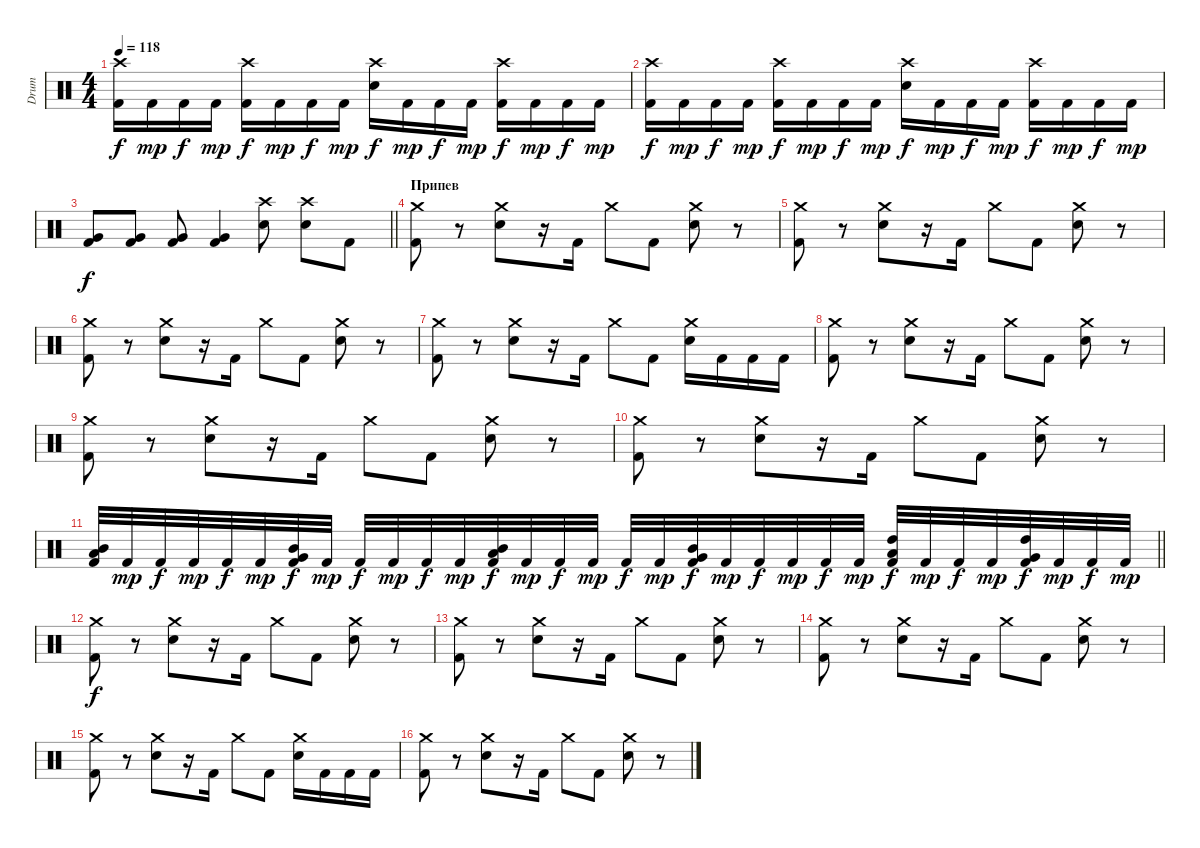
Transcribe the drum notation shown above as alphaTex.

\track ("Drum" "Drum") {instrument percussion}
\staff {score}
\articulation defaults
\ts (4 4)
\tempo 118
\clef neutral
\ks c
("Crash high (hit)" "Kick (hit) 2").16{dy f} "Kick (hit) 2".16{dy mp} "Kick (hit) 2".16{dy f} "Kick (hit) 2".16{dy mp} ("Crash high (hit)" "Kick (hit) 2").16{dy f} "Kick (hit) 2".16{dy mp} "Kick (hit) 2".16{dy f} "Kick (hit) 2".16{dy mp} ("Crash high (hit)" "Snare (hit) 2").16{dy f} "Kick (hit) 2".16{dy mp} "Kick (hit) 2".16{dy f} "Kick (hit) 2".16{dy mp} ("Crash high (hit)" "Kick (hit) 2").16{dy f} "Kick (hit) 2".16{dy mp} "Kick (hit) 2".16{dy f} "Kick (hit) 2".16{dy mp} |
("Crash high (hit)" "Kick (hit) 2").16{dy f} "Kick (hit) 2".16{dy mp} "Kick (hit) 2".16{dy f} "Kick (hit) 2".16{dy mp} ("Crash high (hit)" "Kick (hit) 2").16{dy f} "Kick (hit) 2".16{dy mp} "Kick (hit) 2".16{dy f} "Kick (hit) 2".16{dy mp} ("Crash high (hit)" "Snare (hit) 2").16{dy f} "Kick (hit) 2".16{dy mp} "Kick (hit) 2".16{dy f} "Kick (hit) 2".16{dy mp} ("Crash high (hit)" "Kick (hit) 2").16{dy f} "Kick (hit) 2".16{dy mp} "Kick (hit) 2".16{dy f} "Kick (hit) 2".16{dy mp} |
\barLineRight lightlight
("Very Low Tom (hit)" "Kick (hit) 2").8{dy f} ("Very Low Tom (hit)" "Kick (hit) 2").8 ("Very Low Tom (hit)" "Kick (hit) 2").8 ("Very Low Tom (hit)" "Kick (hit) 2").4 ("Crash high (hit)" "Snare (hit) 2").8 ("Crash high (hit)" "Snare (hit) 2").8 "Kick (hit) 2".8 |
\section ("" "Припев")
("Crash medium (hit)" "Kick (hit) 2").8 r.8 ("Crash medium (hit)" "Snare (hit) 2").8 r.16 "Kick (hit) 2".16 "Crash medium (hit)".8 "Kick (hit) 2".8 ("Crash medium (hit)" "Snare (hit) 2").8 r.8 |
("Crash medium (hit)" "Kick (hit) 2").8 r.8 ("Crash medium (hit)" "Snare (hit) 2").8 r.16 "Kick (hit) 2".16 "Crash medium (hit)".8 "Kick (hit) 2".8 ("Crash medium (hit)" "Snare (hit) 2").8 r.8 |
("Crash medium (hit)" "Kick (hit) 2").8 r.8 ("Crash medium (hit)" "Snare (hit) 2").8 r.16 "Kick (hit) 2".16 "Crash medium (hit)".8 "Kick (hit) 2".8 ("Crash medium (hit)" "Snare (hit) 2").8 r.8 |
("Crash medium (hit)" "Kick (hit) 2").8 r.8 ("Crash medium (hit)" "Snare (hit) 2").8 r.16 "Kick (hit) 2".16 "Crash medium (hit)".8 "Kick (hit) 2".8 ("Crash medium (hit)" "Snare (hit) 2").16 "Kick (hit) 2".16 "Kick (hit) 2".16 "Kick (hit) 2".16 |
("Crash medium (hit)" "Kick (hit) 2").8 r.8 ("Crash medium (hit)" "Snare (hit) 2").8 r.16 "Kick (hit) 2".16 "Crash medium (hit)".8 "Kick (hit) 2".8 ("Crash medium (hit)" "Snare (hit) 2").8 r.8 |
("Crash medium (hit)" "Kick (hit) 2").8 r.8 ("Crash medium (hit)" "Snare (hit) 2").8 r.16 "Kick (hit) 2".16 "Crash medium (hit)".8 "Kick (hit) 2".8 ("Crash medium (hit)" "Snare (hit) 2").8 r.8 |
("Crash medium (hit)" "Kick (hit) 2").8 r.8 ("Crash medium (hit)" "Snare (hit) 2").8 r.16 "Kick (hit) 2".16 "Crash medium (hit)".8 "Kick (hit) 2".8 ("Crash medium (hit)" "Snare (hit) 2").8 r.8 |
\barLineRight lightlight
("Mid Tom (hit)" "Low Tom (hit)" "Kick (hit) 2").32 "Kick (hit) 2".32{dy mp} "Kick (hit) 2".32{dy f} "Kick (hit) 2".32{dy mp} "Kick (hit) 2".32{dy f} "Kick (hit) 2".32{dy mp} ("Mid Tom (hit)" "Very Low Tom (hit)" "Kick (hit) 2").32{dy f} "Kick (hit) 2".32{dy mp} "Kick (hit) 2".32{dy f} "Kick (hit) 2".32{dy mp} "Kick (hit) 2".32{dy f} "Kick (hit) 2".32{dy mp} ("Mid Tom (hit)" "Low Tom (hit)" "Kick (hit) 2").32{dy f} "Kick (hit) 2".32{dy mp} "Kick (hit) 2".32{dy f} "Kick (hit) 2".32{dy mp} "Kick (hit) 2".32{dy f} "Kick (hit) 2".32{dy mp} ("Mid Tom (hit)" "Very Low Tom (hit)" "Kick (hit) 2").32{dy f} "Kick (hit) 2".32{dy mp} "Kick (hit) 2".32{dy f} "Kick (hit) 2".32{dy mp} "Kick (hit) 2".32{dy f} "Kick (hit) 2".32{dy mp} ("High Tom (hit)" "Low Tom (hit)" "Kick (hit) 2").32{dy f} "Kick (hit) 2".32{dy mp} "Kick (hit) 2".32{dy f} "Kick (hit) 2".32{dy mp} ("High Tom (hit)" "Very Low Tom (hit)" "Kick (hit) 2").32{dy f} "Kick (hit) 2".32{dy mp} "Kick (hit) 2".32{dy f} "Kick (hit) 2".32{dy mp} |
\section ("" "")
("Crash medium (hit)" "Kick (hit) 2").8{dy f} r.8 ("Crash medium (hit)" "Snare (hit) 2").8 r.16 "Kick (hit) 2".16 "Crash medium (hit)".8 "Kick (hit) 2".8 ("Crash medium (hit)" "Snare (hit) 2").8 r.8 |
("Crash medium (hit)" "Kick (hit) 2").8 r.8 ("Crash medium (hit)" "Snare (hit) 2").8 r.16 "Kick (hit) 2".16 "Crash medium (hit)".8 "Kick (hit) 2".8 ("Crash medium (hit)" "Snare (hit) 2").8 r.8 |
("Crash medium (hit)" "Kick (hit) 2").8 r.8 ("Crash medium (hit)" "Snare (hit) 2").8 r.16 "Kick (hit) 2".16 "Crash medium (hit)".8 "Kick (hit) 2".8 ("Crash medium (hit)" "Snare (hit) 2").8 r.8 |
("Crash medium (hit)" "Kick (hit) 2").8 r.8 ("Crash medium (hit)" "Snare (hit) 2").8 r.16 "Kick (hit) 2".16 "Crash medium (hit)".8 "Kick (hit) 2".8 ("Crash medium (hit)" "Snare (hit) 2").16 "Kick (hit) 2".16 "Kick (hit) 2".16 "Kick (hit) 2".16 |
("Crash medium (hit)" "Kick (hit) 2").8 r.8 ("Crash medium (hit)" "Snare (hit) 2").8 r.16 "Kick (hit) 2".16 "Crash medium (hit)".8 "Kick (hit) 2".8 ("Crash medium (hit)" "Snare (hit) 2").8 r.8
